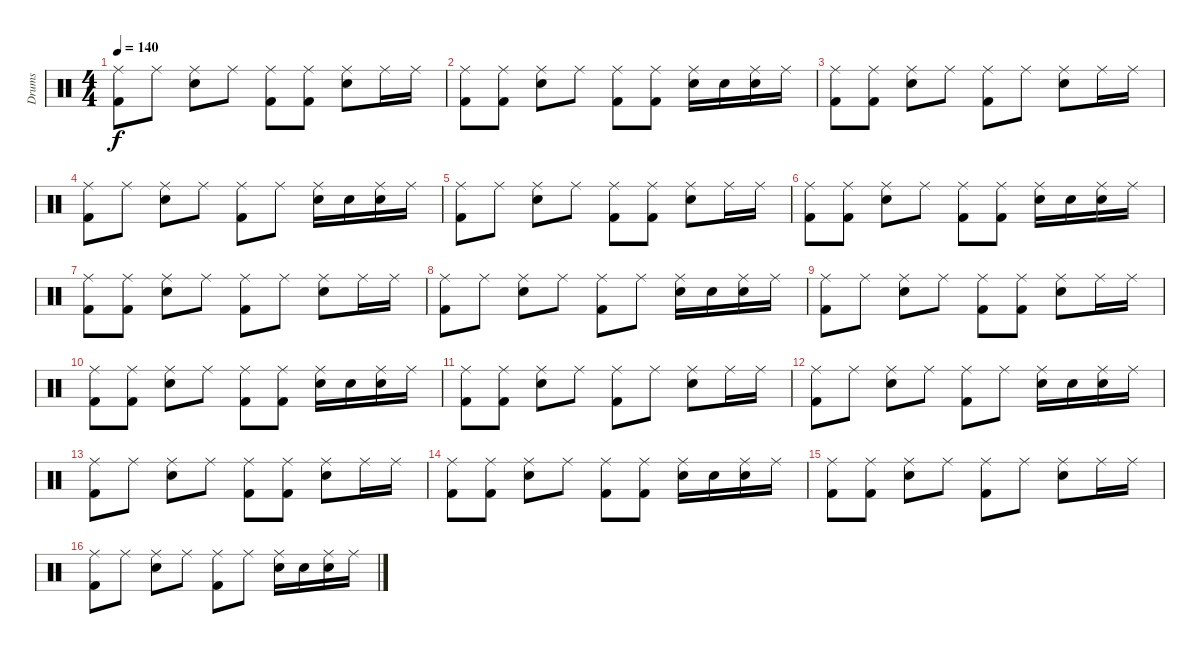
\track ("Drums" "Drums") {instrument percussion}
\staff {score}
\articulation defaults
\ts (4 4)
\tempo 140
\clef neutral
\ks c
("Ride (middle)" "Kick (hit) 2").8{dy f} "Ride (middle)".8 ("Ride (middle)" "Electric Snare (hit)").8 "Ride (middle)".8 ("Ride (middle)" "Kick (hit) 2").8 ("Ride (middle)" "Kick (hit) 2").8 ("Ride (middle)" "Electric Snare (hit)").8 "Ride (middle)".16 "Ride (middle)".16 |
("Ride (middle)" "Kick (hit) 2").8 ("Ride (middle)" "Kick (hit) 2").8 ("Ride (middle)" "Electric Snare (hit)").8 "Ride (middle)".8 ("Ride (middle)" "Kick (hit) 2").8 ("Ride (middle)" "Kick (hit) 2").8 ("Ride (middle)" "Electric Snare (hit)").16 "Electric Snare (hit)".16 ("Ride (middle)" "Electric Snare (hit)").16 "Ride (middle)".16 |
("Ride (middle)" "Kick (hit) 2").8 ("Ride (middle)" "Kick (hit) 2").8 ("Ride (middle)" "Electric Snare (hit)").8 "Ride (middle)".8 ("Ride (middle)" "Kick (hit) 2").8 "Ride (middle)".8 ("Ride (middle)" "Electric Snare (hit)").8 "Ride (middle)".16 "Ride (middle)".16 |
("Ride (middle)" "Kick (hit) 2").8 "Ride (middle)".8 ("Ride (middle)" "Electric Snare (hit)").8 "Ride (middle)".8 ("Ride (middle)" "Kick (hit) 2").8 "Ride (middle)".8 ("Ride (middle)" "Electric Snare (hit)").16 "Electric Snare (hit)".16 ("Ride (middle)" "Electric Snare (hit)").16 "Ride (middle)".16 |
("Ride (middle)" "Kick (hit) 2").8 "Ride (middle)".8 ("Ride (middle)" "Electric Snare (hit)").8 "Ride (middle)".8 ("Ride (middle)" "Kick (hit) 2").8 ("Ride (middle)" "Kick (hit) 2").8 ("Ride (middle)" "Electric Snare (hit)").8 "Ride (middle)".16 "Ride (middle)".16 |
("Ride (middle)" "Kick (hit) 2").8 ("Ride (middle)" "Kick (hit) 2").8 ("Ride (middle)" "Electric Snare (hit)").8 "Ride (middle)".8 ("Ride (middle)" "Kick (hit) 2").8 ("Ride (middle)" "Kick (hit) 2").8 ("Ride (middle)" "Electric Snare (hit)").16 "Electric Snare (hit)".16 ("Ride (middle)" "Electric Snare (hit)").16 "Ride (middle)".16 |
("Ride (middle)" "Kick (hit) 2").8 ("Ride (middle)" "Kick (hit) 2").8 ("Ride (middle)" "Electric Snare (hit)").8 "Ride (middle)".8 ("Ride (middle)" "Kick (hit) 2").8 "Ride (middle)".8 ("Ride (middle)" "Electric Snare (hit)").8 "Ride (middle)".16 "Ride (middle)".16 |
("Ride (middle)" "Kick (hit) 2").8 "Ride (middle)".8 ("Ride (middle)" "Electric Snare (hit)").8 "Ride (middle)".8 ("Ride (middle)" "Kick (hit) 2").8 "Ride (middle)".8 ("Ride (middle)" "Electric Snare (hit)").16 "Electric Snare (hit)".16 ("Ride (middle)" "Electric Snare (hit)").16 "Ride (middle)".16 |
("Ride (middle)" "Kick (hit) 2").8 "Ride (middle)".8 ("Ride (middle)" "Electric Snare (hit)").8 "Ride (middle)".8 ("Ride (middle)" "Kick (hit) 2").8 ("Ride (middle)" "Kick (hit) 2").8 ("Ride (middle)" "Electric Snare (hit)").8 "Ride (middle)".16 "Ride (middle)".16 |
("Ride (middle)" "Kick (hit) 2").8 ("Ride (middle)" "Kick (hit) 2").8 ("Ride (middle)" "Electric Snare (hit)").8 "Ride (middle)".8 ("Ride (middle)" "Kick (hit) 2").8 ("Ride (middle)" "Kick (hit) 2").8 ("Ride (middle)" "Electric Snare (hit)").16 "Electric Snare (hit)".16 ("Ride (middle)" "Electric Snare (hit)").16 "Ride (middle)".16 |
("Ride (middle)" "Kick (hit) 2").8 ("Ride (middle)" "Kick (hit) 2").8 ("Ride (middle)" "Electric Snare (hit)").8 "Ride (middle)".8 ("Ride (middle)" "Kick (hit) 2").8 "Ride (middle)".8 ("Ride (middle)" "Electric Snare (hit)").8 "Ride (middle)".16 "Ride (middle)".16 |
("Ride (middle)" "Kick (hit) 2").8 "Ride (middle)".8 ("Ride (middle)" "Electric Snare (hit)").8 "Ride (middle)".8 ("Ride (middle)" "Kick (hit) 2").8 "Ride (middle)".8 ("Ride (middle)" "Electric Snare (hit)").16 "Electric Snare (hit)".16 ("Ride (middle)" "Electric Snare (hit)").16 "Ride (middle)".16 |
("Ride (middle)" "Kick (hit) 2").8 "Ride (middle)".8 ("Ride (middle)" "Electric Snare (hit)").8 "Ride (middle)".8 ("Ride (middle)" "Kick (hit) 2").8 ("Ride (middle)" "Kick (hit) 2").8 ("Ride (middle)" "Electric Snare (hit)").8 "Ride (middle)".16 "Ride (middle)".16 |
("Ride (middle)" "Kick (hit) 2").8 ("Ride (middle)" "Kick (hit) 2").8 ("Ride (middle)" "Electric Snare (hit)").8 "Ride (middle)".8 ("Ride (middle)" "Kick (hit) 2").8 ("Ride (middle)" "Kick (hit) 2").8 ("Ride (middle)" "Electric Snare (hit)").16 "Electric Snare (hit)".16 ("Ride (middle)" "Electric Snare (hit)").16 "Ride (middle)".16 |
("Ride (middle)" "Kick (hit) 2").8 ("Ride (middle)" "Kick (hit) 2").8 ("Ride (middle)" "Electric Snare (hit)").8 "Ride (middle)".8 ("Ride (middle)" "Kick (hit) 2").8 "Ride (middle)".8 ("Ride (middle)" "Electric Snare (hit)").8 "Ride (middle)".16 "Ride (middle)".16 |
("Ride (middle)" "Kick (hit) 2").8 "Ride (middle)".8 ("Ride (middle)" "Electric Snare (hit)").8 "Ride (middle)".8 ("Ride (middle)" "Kick (hit) 2").8 "Ride (middle)".8 ("Ride (middle)" "Electric Snare (hit)").16 "Electric Snare (hit)".16 ("Ride (middle)" "Electric Snare (hit)").16 "Ride (middle)".16
